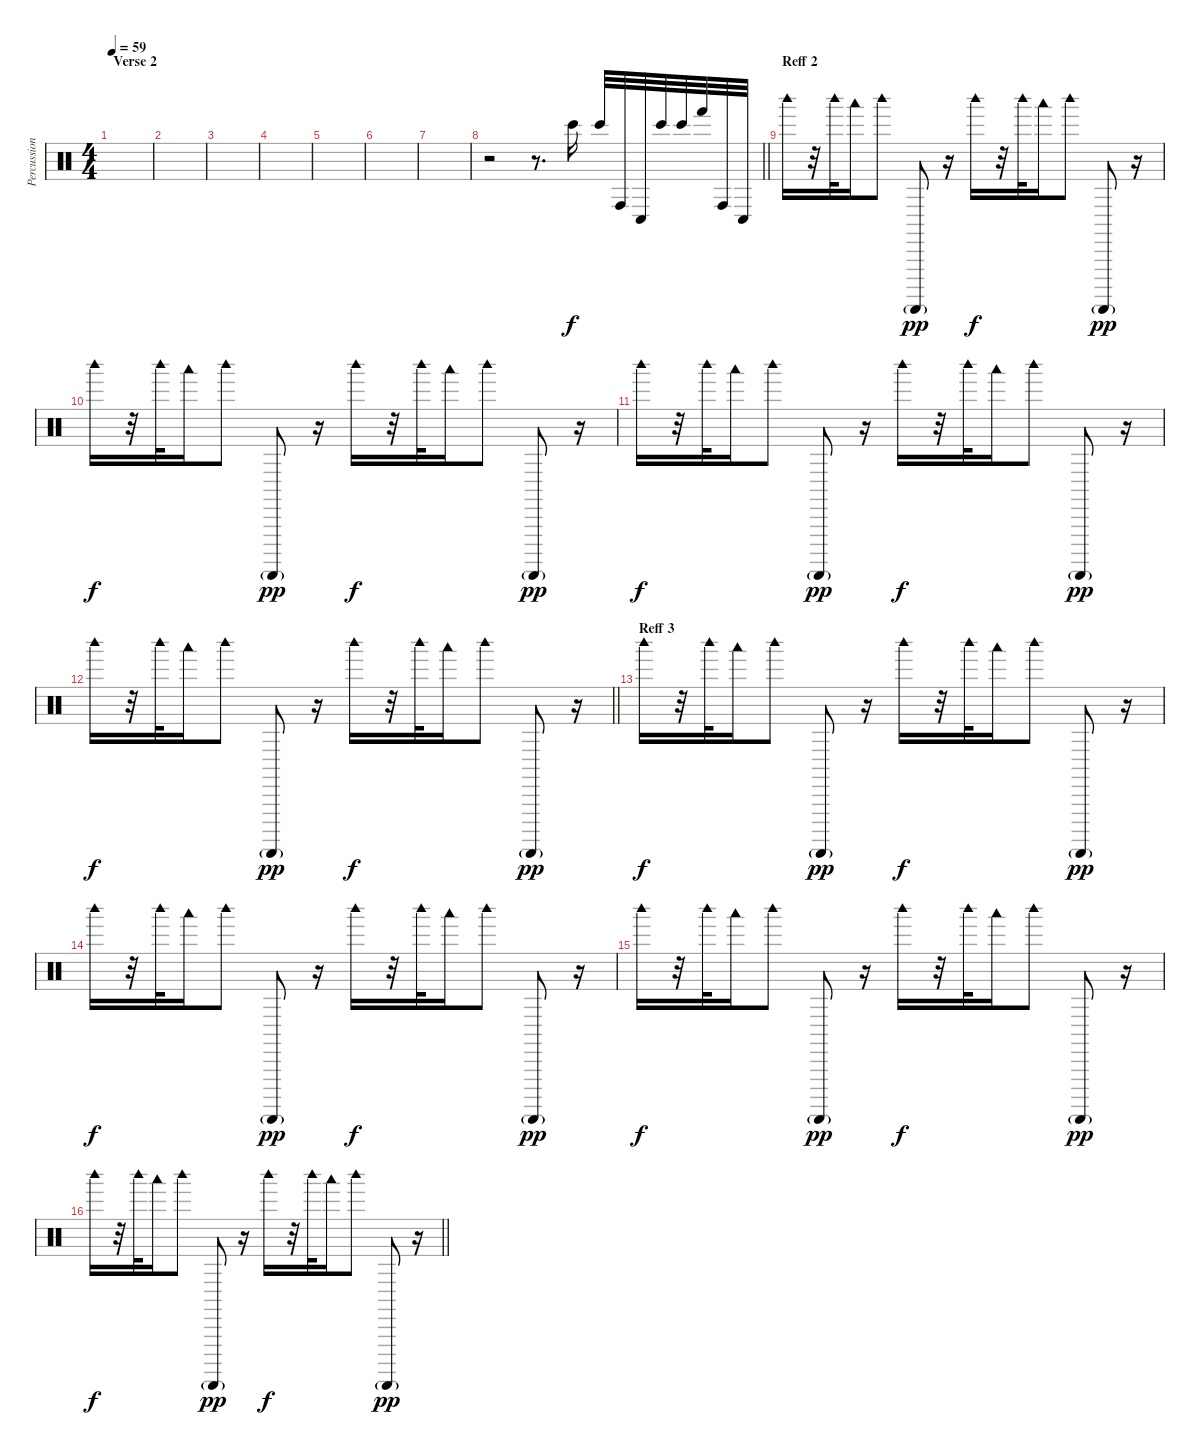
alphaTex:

\track ("Percussion 2" "Percussion") {instrument percussion}
\staff {score}
\articulation defaults
\ts (4 4)
\section ("" "Verse 2")
\tempo 59
\clef neutral
\ks c
|
|
|
|
|
|
|
\barLineRight lightlight
r.2 r.8{d} "Bongo High (hit)".16 "Bongo High (hit)".32 "Conga high (hit)".32 "Conga low (hit)".32 "Bongo High (hit)".32 "Bongo High (hit)".32 "Hand (hit)".32 "Conga high (hit)".32 "Conga low (hit)".32 |
\section ("" "Reff 2")
"Woodblock high (hit)".16 r.32 "Woodblock high (hit)".32 "Woodblock low (hit)".16 "Woodblock high (hit)".8 "Guiro (scrap-return)"{g}.8{dy pp} r.16 "Woodblock high (hit)".16{dy f} r.32 "Woodblock high (hit)".32 "Woodblock low (hit)".16 "Woodblock high (hit)".8 "Guiro (scrap-return)"{g}.8{dy pp} r.16 |
"Woodblock high (hit)".16{dy f} r.32 "Woodblock high (hit)".32 "Woodblock low (hit)".16 "Woodblock high (hit)".8 "Guiro (scrap-return)"{g}.8{dy pp} r.16 "Woodblock high (hit)".16{dy f} r.32 "Woodblock high (hit)".32 "Woodblock low (hit)".16 "Woodblock high (hit)".8 "Guiro (scrap-return)"{g}.8{dy pp} r.16 |
"Woodblock high (hit)".16{dy f} r.32 "Woodblock high (hit)".32 "Woodblock low (hit)".16 "Woodblock high (hit)".8 "Guiro (scrap-return)"{g}.8{dy pp} r.16 "Woodblock high (hit)".16{dy f} r.32 "Woodblock high (hit)".32 "Woodblock low (hit)".16 "Woodblock high (hit)".8 "Guiro (scrap-return)"{g}.8{dy pp} r.16 |
\barLineRight lightlight "Woodblock high (hit)".16{dy f}
r.32 "Woodblock high (hit)".32 "Woodblock low (hit)".16 "Woodblock high (hit)".8 "Guiro (scrap-return)"{g}.8{dy pp} r.16 "Woodblock high (hit)".16{dy f} r.32 "Woodblock high (hit)".32 "Woodblock low (hit)".16 "Woodblock high (hit)".8 "Guiro (scrap-return)"{g}.8{dy pp} r.16 |
\section ("" "Reff 3")
"Woodblock high (hit)".16{dy f} r.32 "Woodblock high (hit)".32 "Woodblock low (hit)".16 "Woodblock high (hit)".8 "Guiro (scrap-return)"{g}.8{dy pp} r.16 "Woodblock high (hit)".16{dy f} r.32 "Woodblock high (hit)".32 "Woodblock low (hit)".16 "Woodblock high (hit)".8 "Guiro (scrap-return)"{g}.8{dy pp} r.16 |
"Woodblock high (hit)".16{dy f} r.32 "Woodblock high (hit)".32 "Woodblock low (hit)".16 "Woodblock high (hit)".8 "Guiro (scrap-return)"{g}.8{dy pp} r.16 "Woodblock high (hit)".16{dy f} r.32 "Woodblock high (hit)".32 "Woodblock low (hit)".16 "Woodblock high (hit)".8 "Guiro (scrap-return)"{g}.8{dy pp} r.16 |
"Woodblock high (hit)".16{dy f} r.32 "Woodblock high (hit)".32 "Woodblock low (hit)".16 "Woodblock high (hit)".8 "Guiro (scrap-return)"{g}.8{dy pp} r.16 "Woodblock high (hit)".16{dy f} r.32 "Woodblock high (hit)".32 "Woodblock low (hit)".16 "Woodblock high (hit)".8 "Guiro (scrap-return)"{g}.8{dy pp} r.16 |
\barLineRight lightlight "Woodblock high (hit)".16{dy f}
r.32 "Woodblock high (hit)".32 "Woodblock low (hit)".16 "Woodblock high (hit)".8 "Guiro (scrap-return)"{g}.8{dy pp} r.16 "Woodblock high (hit)".16{dy f} r.32 "Woodblock high (hit)".32 "Woodblock low (hit)".16 "Woodblock high (hit)".8 "Guiro (scrap-return)"{g}.8{dy pp} r.16
